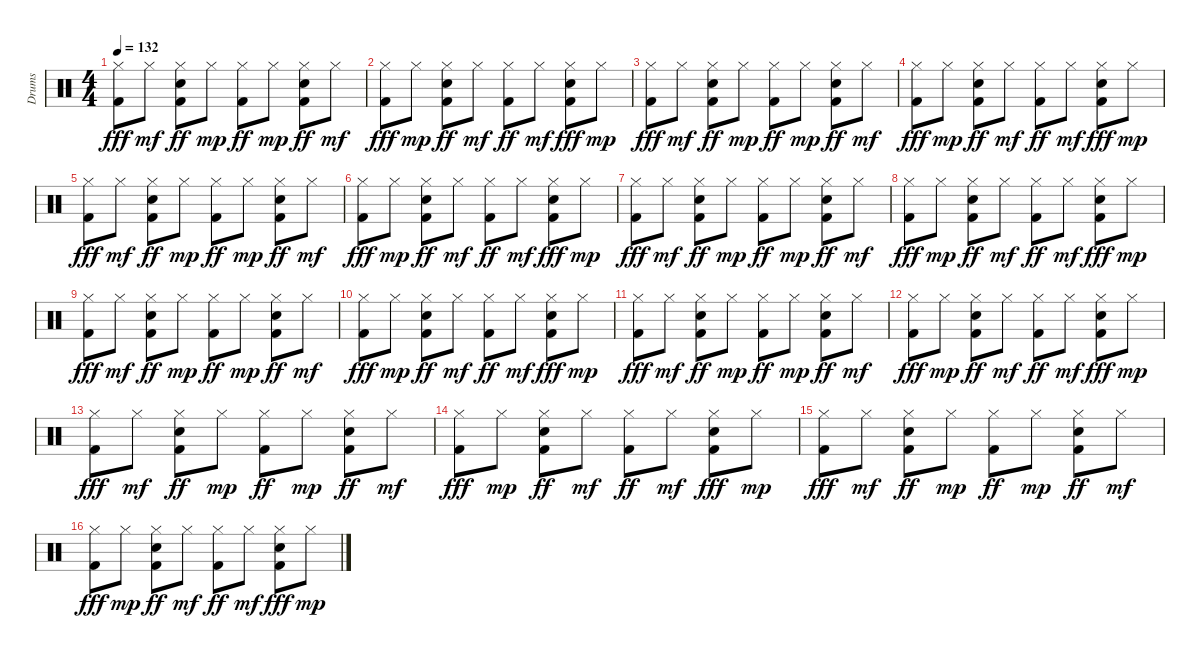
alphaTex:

\track ("Drums" "Drums") {instrument percussion}
\staff {score}
\articulation defaults
\ts (4 4)
\tempo 132
\clef neutral
\ks c
("Hi-Hat (closed)" "Kick (hit) 2").8{dy fff} "Hi-Hat (closed)".8{dy mf} ("Kick (hit) 2" "Snare (hit) 2" "Hi-Hat (closed)").8{dy ff} "Hi-Hat (closed)".8{dy mp} ("Hi-Hat (closed)" "Kick (hit) 2").8{dy ff} "Hi-Hat (closed)".8{dy mp} ("Hi-Hat (closed)" "Kick (hit) 2" "Snare (hit) 2").8{dy ff} "Hi-Hat (closed)".8{dy mf} |
("Kick (hit) 2" "Hi-Hat (closed)").8{dy fff} "Hi-Hat (closed)".8{dy mp} ("Hi-Hat (closed)" "Kick (hit) 2" "Snare (hit) 2").8{dy ff} "Hi-Hat (closed)".8{dy mf} ("Hi-Hat (closed)" "Kick (hit) 2").8{dy ff} "Hi-Hat (closed)".8{dy mf} ("Hi-Hat (closed)" "Snare (hit) 2" "Kick (hit) 2").8{dy fff} "Hi-Hat (closed)".8{dy mp} |
("Hi-Hat (closed)" "Kick (hit) 2").8{dy fff} "Hi-Hat (closed)".8{dy mf} ("Hi-Hat (closed)" "Snare (hit) 2" "Kick (hit) 2").8{dy ff} "Hi-Hat (closed)".8{dy mp} ("Kick (hit) 2" "Hi-Hat (closed)").8{dy ff} "Hi-Hat (closed)".8{dy mp} ("Snare (hit) 2" "Hi-Hat (closed)" "Kick (hit) 2").8{dy ff} "Hi-Hat (closed)".8{dy mf} |
("Kick (hit) 2" "Hi-Hat (closed)").8{dy fff} "Hi-Hat (closed)".8{dy mp} ("Kick (hit) 2" "Snare (hit) 2" "Hi-Hat (closed)").8{dy ff} "Hi-Hat (closed)".8{dy mf} ("Hi-Hat (closed)" "Kick (hit) 2").8{dy ff} "Hi-Hat (closed)".8{dy mf} ("Snare (hit) 2" "Kick (hit) 2" "Hi-Hat (closed)").8{dy fff} "Hi-Hat (closed)".8{dy mp} |
("Kick (hit) 2" "Hi-Hat (closed)").8{dy fff} "Hi-Hat (closed)".8{dy mf} ("Kick (hit) 2" "Snare (hit) 2" "Hi-Hat (closed)").8{dy ff} "Hi-Hat (closed)".8{dy mp} ("Hi-Hat (closed)" "Kick (hit) 2").8{dy ff} "Hi-Hat (closed)".8{dy mp} ("Kick (hit) 2" "Hi-Hat (closed)" "Snare (hit) 2").8{dy ff} "Hi-Hat (closed)".8{dy mf} |
("Kick (hit) 2" "Hi-Hat (closed)").8{dy fff} "Hi-Hat (closed)".8{dy mp} ("Snare (hit) 2" "Kick (hit) 2" "Hi-Hat (closed)").8{dy ff} "Hi-Hat (closed)".8{dy mf} ("Hi-Hat (closed)" "Kick (hit) 2").8{dy ff} "Hi-Hat (closed)".8{dy mf} ("Snare (hit) 2" "Hi-Hat (closed)" "Kick (hit) 2").8{dy fff} "Hi-Hat (closed)".8{dy mp} |
("Kick (hit) 2" "Hi-Hat (closed)").8{dy fff} "Hi-Hat (closed)".8{dy mf} ("Hi-Hat (closed)" "Kick (hit) 2" "Snare (hit) 2").8{dy ff} "Hi-Hat (closed)".8{dy mp} ("Hi-Hat (closed)" "Kick (hit) 2").8{dy ff} "Hi-Hat (closed)".8{dy mp} ("Snare (hit) 2" "Kick (hit) 2" "Hi-Hat (closed)").8{dy ff} "Hi-Hat (closed)".8{dy mf} |
("Kick (hit) 2" "Hi-Hat (closed)").8{dy fff} "Hi-Hat (closed)".8{dy mp} ("Snare (hit) 2" "Kick (hit) 2" "Hi-Hat (closed)").8{dy ff} "Hi-Hat (closed)".8{dy mf} ("Hi-Hat (closed)" "Kick (hit) 2").8{dy ff} "Hi-Hat (closed)".8{dy mf} ("Hi-Hat (closed)" "Kick (hit) 2" "Snare (hit) 2").8{dy fff} "Hi-Hat (closed)".8{dy mp} |
("Hi-Hat (closed)" "Kick (hit) 2").8{dy fff} "Hi-Hat (closed)".8{dy mf} ("Hi-Hat (closed)" "Kick (hit) 2" "Snare (hit) 2").8{dy ff} "Hi-Hat (closed)".8{dy mp} ("Kick (hit) 2" "Hi-Hat (closed)").8{dy ff} "Hi-Hat (closed)".8{dy mp} ("Snare (hit) 2" "Kick (hit) 2" "Hi-Hat (closed)").8{dy ff} "Hi-Hat (closed)".8{dy mf} |
("Kick (hit) 2" "Hi-Hat (closed)").8{dy fff} "Hi-Hat (closed)".8{dy mp} ("Hi-Hat (closed)" "Snare (hit) 2" "Kick (hit) 2").8{dy ff} "Hi-Hat (closed)".8{dy mf} ("Hi-Hat (closed)" "Kick (hit) 2").8{dy ff} "Hi-Hat (closed)".8{dy mf} ("Snare (hit) 2" "Hi-Hat (closed)" "Kick (hit) 2").8{dy fff} "Hi-Hat (closed)".8{dy mp} |
("Hi-Hat (closed)" "Kick (hit) 2").8{dy fff} "Hi-Hat (closed)".8{dy mf} ("Hi-Hat (closed)" "Snare (hit) 2" "Kick (hit) 2").8{dy ff} "Hi-Hat (closed)".8{dy mp} ("Kick (hit) 2" "Hi-Hat (closed)").8{dy ff} "Hi-Hat (closed)".8{dy mp} ("Hi-Hat (closed)" "Kick (hit) 2" "Snare (hit) 2").8{dy ff} "Hi-Hat (closed)".8{dy mf} |
("Kick (hit) 2" "Hi-Hat (closed)").8{dy fff} "Hi-Hat (closed)".8{dy mp} ("Hi-Hat (closed)" "Kick (hit) 2" "Snare (hit) 2").8{dy ff} "Hi-Hat (closed)".8{dy mf} ("Hi-Hat (closed)" "Kick (hit) 2").8{dy ff} "Hi-Hat (closed)".8{dy mf} ("Hi-Hat (closed)" "Snare (hit) 2" "Kick (hit) 2").8{dy fff} "Hi-Hat (closed)".8{dy mp} |
("Hi-Hat (closed)" "Kick (hit) 2").8{dy fff} "Hi-Hat (closed)".8{dy mf} ("Snare (hit) 2" "Kick (hit) 2" "Hi-Hat (closed)").8{dy ff} "Hi-Hat (closed)".8{dy mp} ("Kick (hit) 2" "Hi-Hat (closed)").8{dy ff} "Hi-Hat (closed)".8{dy mp} ("Hi-Hat (closed)" "Kick (hit) 2" "Snare (hit) 2").8{dy ff} "Hi-Hat (closed)".8{dy mf} |
("Hi-Hat (closed)" "Kick (hit) 2").8{dy fff} "Hi-Hat (closed)".8{dy mp} ("Kick (hit) 2" "Snare (hit) 2" "Hi-Hat (closed)").8{dy ff} "Hi-Hat (closed)".8{dy mf} ("Kick (hit) 2" "Hi-Hat (closed)").8{dy ff} "Hi-Hat (closed)".8{dy mf} ("Kick (hit) 2" "Hi-Hat (closed)" "Snare (hit) 2").8{dy fff} "Hi-Hat (closed)".8{dy mp} |
("Hi-Hat (closed)" "Kick (hit) 2").8{dy fff} "Hi-Hat (closed)".8{dy mf} ("Hi-Hat (closed)" "Snare (hit) 2" "Kick (hit) 2").8{dy ff} "Hi-Hat (closed)".8{dy mp} ("Hi-Hat (closed)" "Kick (hit) 2").8{dy ff} "Hi-Hat (closed)".8{dy mp} ("Hi-Hat (closed)" "Snare (hit) 2" "Kick (hit) 2").8{dy ff} "Hi-Hat (closed)".8{dy mf} |
("Hi-Hat (closed)" "Kick (hit) 2").8{dy fff} "Hi-Hat (closed)".8{dy mp} ("Snare (hit) 2" "Hi-Hat (closed)" "Kick (hit) 2").8{dy ff} "Hi-Hat (closed)".8{dy mf} ("Hi-Hat (closed)" "Kick (hit) 2").8{dy ff} "Hi-Hat (closed)".8{dy mf} ("Snare (hit) 2" "Hi-Hat (closed)" "Kick (hit) 2").8{dy fff} "Hi-Hat (closed)".8{dy mp}
